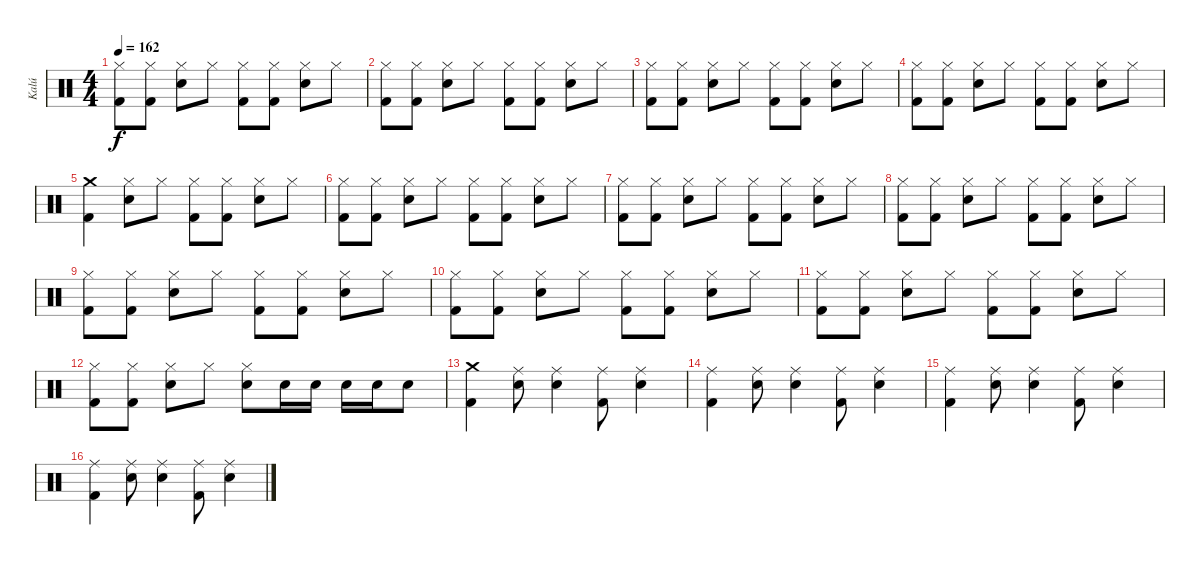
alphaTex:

\track ("Kalú" "Kalú") {instrument percussion}
\staff {score}
\articulation defaults
\ts (4 4)
\tempo 162
\clef neutral
\ks c
("Hi-Hat (closed)" "Kick (hit) 2").8{dy f} ("Hi-Hat (closed)" "Kick (hit) 2").8 ("Hi-Hat (closed)" "Electric Snare (hit)").8 "Hi-Hat (closed)".8 ("Hi-Hat (closed)" "Kick (hit) 2").8 ("Hi-Hat (closed)" "Kick (hit) 2").8 ("Hi-Hat (closed)" "Electric Snare (hit)").8 "Hi-Hat (closed)".8 |
("Hi-Hat (closed)" "Kick (hit) 2").8 ("Hi-Hat (closed)" "Kick (hit) 2").8 ("Hi-Hat (closed)" "Electric Snare (hit)").8 "Hi-Hat (closed)".8 ("Hi-Hat (closed)" "Kick (hit) 2").8 ("Hi-Hat (closed)" "Kick (hit) 2").8 ("Hi-Hat (closed)" "Electric Snare (hit)").8 "Hi-Hat (closed)".8 |
("Hi-Hat (closed)" "Kick (hit) 2").8 ("Hi-Hat (closed)" "Kick (hit) 2").8 ("Hi-Hat (closed)" "Electric Snare (hit)").8 "Hi-Hat (closed)".8 ("Hi-Hat (closed)" "Kick (hit) 2").8 ("Hi-Hat (closed)" "Kick (hit) 2").8 ("Hi-Hat (closed)" "Electric Snare (hit)").8 "Hi-Hat (closed)".8 |
("Hi-Hat (closed)" "Kick (hit) 2").8 ("Hi-Hat (closed)" "Kick (hit) 2").8 ("Hi-Hat (closed)" "Electric Snare (hit)").8 "Hi-Hat (closed)".8 ("Hi-Hat (closed)" "Kick (hit) 2").8 ("Hi-Hat (closed)" "Kick (hit) 2").8 ("Hi-Hat (closed)" "Electric Snare (hit)").8 "Hi-Hat (closed)".8 |
("Crash medium (hit)" "Kick (hit) 2").4 ("Hi-Hat (closed)" "Electric Snare (hit)").8 "Hi-Hat (closed)".8 ("Hi-Hat (closed)" "Kick (hit) 2").8 ("Hi-Hat (closed)" "Kick (hit) 2").8 ("Hi-Hat (closed)" "Electric Snare (hit)").8 "Hi-Hat (closed)".8 |
("Hi-Hat (closed)" "Kick (hit) 2").8 ("Hi-Hat (closed)" "Kick (hit) 2").8 ("Hi-Hat (closed)" "Electric Snare (hit)").8 "Hi-Hat (closed)".8 ("Hi-Hat (closed)" "Kick (hit) 2").8 ("Hi-Hat (closed)" "Kick (hit) 2").8 ("Hi-Hat (closed)" "Electric Snare (hit)").8 "Hi-Hat (closed)".8 |
("Hi-Hat (closed)" "Kick (hit) 2").8 ("Hi-Hat (closed)" "Kick (hit) 2").8 ("Hi-Hat (closed)" "Electric Snare (hit)").8 "Hi-Hat (closed)".8 ("Hi-Hat (closed)" "Kick (hit) 2").8 ("Hi-Hat (closed)" "Kick (hit) 2").8 ("Hi-Hat (closed)" "Electric Snare (hit)").8 "Hi-Hat (closed)".8 |
("Hi-Hat (closed)" "Kick (hit) 2").8 ("Hi-Hat (closed)" "Kick (hit) 2").8 ("Hi-Hat (closed)" "Electric Snare (hit)").8 "Hi-Hat (closed)".8 ("Hi-Hat (closed)" "Kick (hit) 2").8 ("Hi-Hat (closed)" "Kick (hit) 2").8 ("Hi-Hat (closed)" "Electric Snare (hit)").8 "Hi-Hat (closed)".8 |
("Hi-Hat (closed)" "Kick (hit) 2").8 ("Hi-Hat (closed)" "Kick (hit) 2").8 ("Hi-Hat (closed)" "Electric Snare (hit)").8 "Hi-Hat (closed)".8 ("Hi-Hat (closed)" "Kick (hit) 2").8 ("Hi-Hat (closed)" "Kick (hit) 2").8 ("Hi-Hat (closed)" "Electric Snare (hit)").8 "Hi-Hat (closed)".8 |
("Hi-Hat (closed)" "Kick (hit) 2").8 ("Hi-Hat (closed)" "Kick (hit) 2").8 ("Hi-Hat (closed)" "Electric Snare (hit)").8 "Hi-Hat (closed)".8 ("Hi-Hat (closed)" "Kick (hit) 2").8 ("Hi-Hat (closed)" "Kick (hit) 2").8 ("Hi-Hat (closed)" "Electric Snare (hit)").8 "Hi-Hat (closed)".8 |
("Hi-Hat (closed)" "Kick (hit) 2").8 ("Hi-Hat (closed)" "Kick (hit) 2").8 ("Hi-Hat (closed)" "Electric Snare (hit)").8 "Hi-Hat (closed)".8 ("Hi-Hat (closed)" "Kick (hit) 2").8 ("Hi-Hat (closed)" "Kick (hit) 2").8 ("Hi-Hat (closed)" "Electric Snare (hit)").8 "Hi-Hat (closed)".8 |
("Hi-Hat (closed)" "Kick (hit) 2").8 ("Hi-Hat (closed)" "Kick (hit) 2").8 ("Hi-Hat (closed)" "Electric Snare (hit)").8 "Hi-Hat (closed)".8 ("Hi-Hat (closed)" "Electric Snare (hit)").8 "Electric Snare (hit)".16 "Electric Snare (hit)".16 "Electric Snare (hit)".16 "Electric Snare (hit)".16 "Electric Snare (hit)".8 |
("Crash medium (hit)" "Kick (hit) 2").4 ("Ride (middle)" "Electric Snare (hit)").8 ("Ride (middle)" "Electric Snare (hit)").4 ("Ride (middle)" "Kick (hit) 2").8 ("Ride (middle)" "Electric Snare (hit)").4 |
("Ride (middle)" "Kick (hit) 2").4 ("Ride (middle)" "Electric Snare (hit)").8 ("Ride (middle)" "Electric Snare (hit)").4 ("Ride (middle)" "Kick (hit) 2").8 ("Ride (middle)" "Electric Snare (hit)").4 |
("Ride (middle)" "Kick (hit) 2").4 ("Ride (middle)" "Electric Snare (hit)").8 ("Ride (middle)" "Electric Snare (hit)").4 ("Ride (middle)" "Kick (hit) 2").8 ("Ride (middle)" "Electric Snare (hit)").4 |
("Ride (middle)" "Kick (hit) 2").4 ("Ride (middle)" "Electric Snare (hit)").8 ("Ride (middle)" "Electric Snare (hit)").4 ("Ride (middle)" "Kick (hit) 2").8 ("Ride (middle)" "Electric Snare (hit)").4
